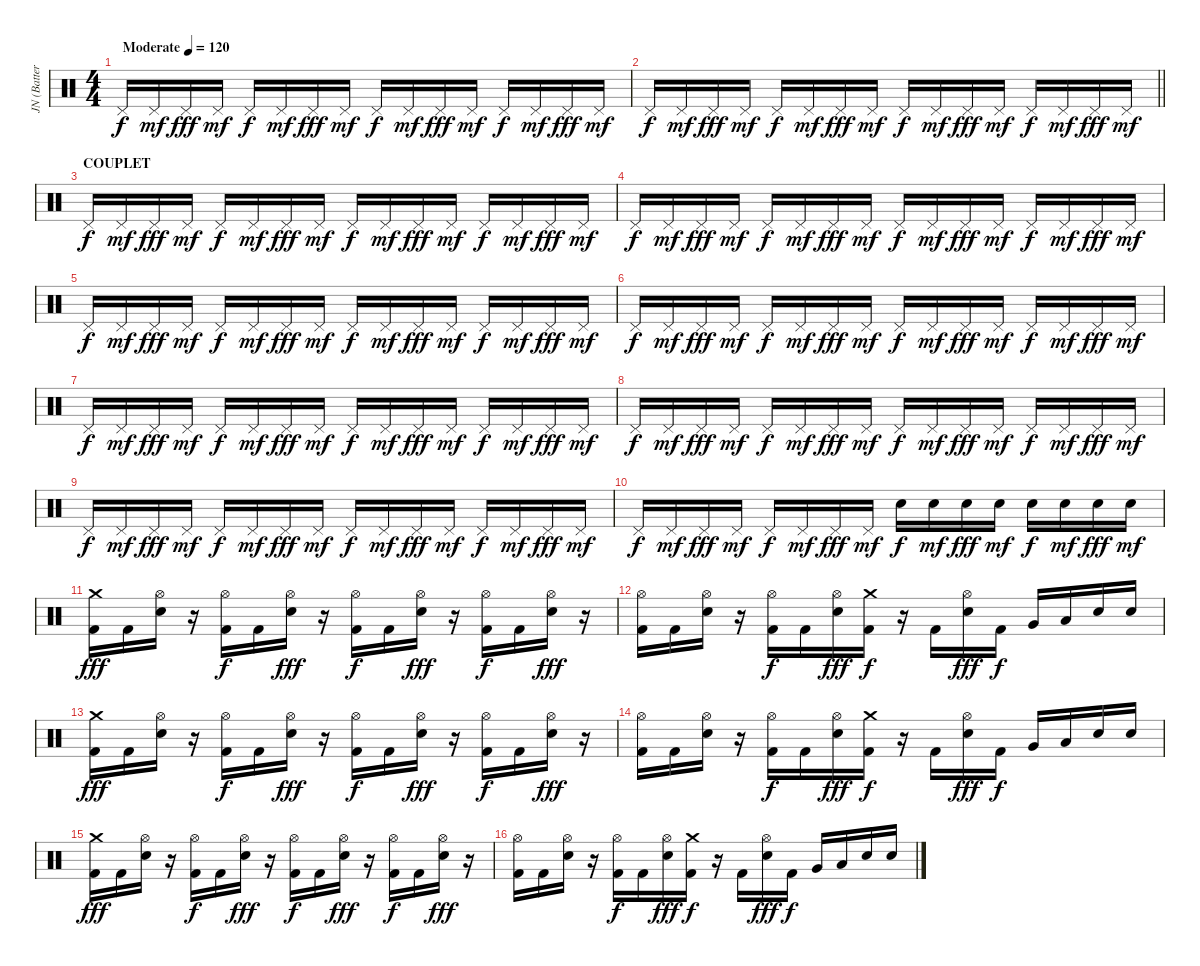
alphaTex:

\track ("JN (Batterie)" "JN (Batter") {instrument percussion}
\staff {score}
\articulation defaults
\ts (4 4)
\tempo (120 "Moderate")
\clef neutral
\ks c "Pedal Hi-Hat (hit)".16{dy f} "Pedal Hi-Hat (hit)".16{dy mf} "Pedal Hi-Hat (hit)".16{dy fff} "Pedal Hi-Hat (hit)".16{dy mf} "Pedal Hi-Hat (hit)".16{dy f} "Pedal Hi-Hat (hit)".16{dy mf} "Pedal Hi-Hat (hit)".16{dy fff} "Pedal Hi-Hat (hit)".16{dy mf} "Pedal Hi-Hat (hit)".16{dy f} "Pedal Hi-Hat (hit)".16{dy mf} "Pedal Hi-Hat (hit)".16{dy fff} "Pedal Hi-Hat (hit)".16{dy mf} "Pedal Hi-Hat (hit)".16{dy f} "Pedal Hi-Hat (hit)".16{dy mf} "Pedal Hi-Hat (hit)".16{dy fff} "Pedal Hi-Hat (hit)".16{dy mf}
|
\barLineRight lightlight "Pedal Hi-Hat (hit)".16{dy f} "Pedal Hi-Hat (hit)".16{dy mf} "Pedal Hi-Hat (hit)".16{dy fff} "Pedal Hi-Hat (hit)".16{dy mf} "Pedal Hi-Hat (hit)".16{dy f} "Pedal Hi-Hat (hit)".16{dy mf} "Pedal Hi-Hat (hit)".16{dy fff} "Pedal Hi-Hat (hit)".16{dy mf} "Pedal Hi-Hat (hit)".16{dy f} "Pedal Hi-Hat (hit)".16{dy mf} "Pedal Hi-Hat (hit)".16{dy fff} "Pedal Hi-Hat (hit)".16{dy mf} "Pedal Hi-Hat (hit)".16{dy f} "Pedal Hi-Hat (hit)".16{dy mf} "Pedal Hi-Hat (hit)".16{dy fff} "Pedal Hi-Hat (hit)".16{dy mf}
|
\section ("" "COUPLET")
"Pedal Hi-Hat (hit)".16{dy f} "Pedal Hi-Hat (hit)".16{dy mf} "Pedal Hi-Hat (hit)".16{dy fff} "Pedal Hi-Hat (hit)".16{dy mf} "Pedal Hi-Hat (hit)".16{dy f} "Pedal Hi-Hat (hit)".16{dy mf} "Pedal Hi-Hat (hit)".16{dy fff} "Pedal Hi-Hat (hit)".16{dy mf} "Pedal Hi-Hat (hit)".16{dy f} "Pedal Hi-Hat (hit)".16{dy mf} "Pedal Hi-Hat (hit)".16{dy fff} "Pedal Hi-Hat (hit)".16{dy mf} "Pedal Hi-Hat (hit)".16{dy f} "Pedal Hi-Hat (hit)".16{dy mf} "Pedal Hi-Hat (hit)".16{dy fff} "Pedal Hi-Hat (hit)".16{dy mf} |
"Pedal Hi-Hat (hit)".16{dy f} "Pedal Hi-Hat (hit)".16{dy mf} "Pedal Hi-Hat (hit)".16{dy fff} "Pedal Hi-Hat (hit)".16{dy mf} "Pedal Hi-Hat (hit)".16{dy f} "Pedal Hi-Hat (hit)".16{dy mf} "Pedal Hi-Hat (hit)".16{dy fff} "Pedal Hi-Hat (hit)".16{dy mf} "Pedal Hi-Hat (hit)".16{dy f} "Pedal Hi-Hat (hit)".16{dy mf} "Pedal Hi-Hat (hit)".16{dy fff} "Pedal Hi-Hat (hit)".16{dy mf} "Pedal Hi-Hat (hit)".16{dy f} "Pedal Hi-Hat (hit)".16{dy mf} "Pedal Hi-Hat (hit)".16{dy fff} "Pedal Hi-Hat (hit)".16{dy mf} |
"Pedal Hi-Hat (hit)".16{dy f} "Pedal Hi-Hat (hit)".16{dy mf} "Pedal Hi-Hat (hit)".16{dy fff} "Pedal Hi-Hat (hit)".16{dy mf} "Pedal Hi-Hat (hit)".16{dy f} "Pedal Hi-Hat (hit)".16{dy mf} "Pedal Hi-Hat (hit)".16{dy fff} "Pedal Hi-Hat (hit)".16{dy mf} "Pedal Hi-Hat (hit)".16{dy f} "Pedal Hi-Hat (hit)".16{dy mf} "Pedal Hi-Hat (hit)".16{dy fff} "Pedal Hi-Hat (hit)".16{dy mf} "Pedal Hi-Hat (hit)".16{dy f} "Pedal Hi-Hat (hit)".16{dy mf} "Pedal Hi-Hat (hit)".16{dy fff} "Pedal Hi-Hat (hit)".16{dy mf} |
"Pedal Hi-Hat (hit)".16{dy f} "Pedal Hi-Hat (hit)".16{dy mf} "Pedal Hi-Hat (hit)".16{dy fff} "Pedal Hi-Hat (hit)".16{dy mf} "Pedal Hi-Hat (hit)".16{dy f} "Pedal Hi-Hat (hit)".16{dy mf} "Pedal Hi-Hat (hit)".16{dy fff} "Pedal Hi-Hat (hit)".16{dy mf} "Pedal Hi-Hat (hit)".16{dy f} "Pedal Hi-Hat (hit)".16{dy mf} "Pedal Hi-Hat (hit)".16{dy fff} "Pedal Hi-Hat (hit)".16{dy mf} "Pedal Hi-Hat (hit)".16{dy f} "Pedal Hi-Hat (hit)".16{dy mf} "Pedal Hi-Hat (hit)".16{dy fff} "Pedal Hi-Hat (hit)".16{dy mf} |
"Pedal Hi-Hat (hit)".16{dy f} "Pedal Hi-Hat (hit)".16{dy mf} "Pedal Hi-Hat (hit)".16{dy fff} "Pedal Hi-Hat (hit)".16{dy mf} "Pedal Hi-Hat (hit)".16{dy f} "Pedal Hi-Hat (hit)".16{dy mf} "Pedal Hi-Hat (hit)".16{dy fff} "Pedal Hi-Hat (hit)".16{dy mf} "Pedal Hi-Hat (hit)".16{dy f} "Pedal Hi-Hat (hit)".16{dy mf} "Pedal Hi-Hat (hit)".16{dy fff} "Pedal Hi-Hat (hit)".16{dy mf} "Pedal Hi-Hat (hit)".16{dy f} "Pedal Hi-Hat (hit)".16{dy mf} "Pedal Hi-Hat (hit)".16{dy fff} "Pedal Hi-Hat (hit)".16{dy mf} |
"Pedal Hi-Hat (hit)".16{dy f} "Pedal Hi-Hat (hit)".16{dy mf} "Pedal Hi-Hat (hit)".16{dy fff} "Pedal Hi-Hat (hit)".16{dy mf} "Pedal Hi-Hat (hit)".16{dy f} "Pedal Hi-Hat (hit)".16{dy mf} "Pedal Hi-Hat (hit)".16{dy fff} "Pedal Hi-Hat (hit)".16{dy mf} "Pedal Hi-Hat (hit)".16{dy f} "Pedal Hi-Hat (hit)".16{dy mf} "Pedal Hi-Hat (hit)".16{dy fff} "Pedal Hi-Hat (hit)".16{dy mf} "Pedal Hi-Hat (hit)".16{dy f} "Pedal Hi-Hat (hit)".16{dy mf} "Pedal Hi-Hat (hit)".16{dy fff} "Pedal Hi-Hat (hit)".16{dy mf} |
"Pedal Hi-Hat (hit)".16{dy f} "Pedal Hi-Hat (hit)".16{dy mf} "Pedal Hi-Hat (hit)".16{dy fff} "Pedal Hi-Hat (hit)".16{dy mf} "Pedal Hi-Hat (hit)".16{dy f} "Pedal Hi-Hat (hit)".16{dy mf} "Pedal Hi-Hat (hit)".16{dy fff} "Pedal Hi-Hat (hit)".16{dy mf} "Pedal Hi-Hat (hit)".16{dy f} "Pedal Hi-Hat (hit)".16{dy mf} "Pedal Hi-Hat (hit)".16{dy fff} "Pedal Hi-Hat (hit)".16{dy mf} "Pedal Hi-Hat (hit)".16{dy f} "Pedal Hi-Hat (hit)".16{dy mf} "Pedal Hi-Hat (hit)".16{dy fff} "Pedal Hi-Hat (hit)".16{dy mf} |
"Pedal Hi-Hat (hit)".16{dy f} "Pedal Hi-Hat (hit)".16{dy mf} "Pedal Hi-Hat (hit)".16{dy fff} "Pedal Hi-Hat (hit)".16{dy mf} "Pedal Hi-Hat (hit)".16{dy f} "Pedal Hi-Hat (hit)".16{dy mf} "Pedal Hi-Hat (hit)".16{dy fff} "Pedal Hi-Hat (hit)".16{dy mf} "Electric Snare (hit)".16{dy f} "Electric Snare (hit)".16{dy mf} "Electric Snare (hit)".16{dy fff} "Electric Snare (hit)".16{dy mf} "Electric Snare (hit)".16{dy f} "Electric Snare (hit)".16{dy mf} "Electric Snare (hit)".16{dy fff} "Electric Snare (hit)".16{dy mf} |
("Crash medium (hit)" "Kick (hit) 2").16{dy fff} "Kick (hit) 2".16 ("Hi-Hat (open)" "Electric Snare (hit)").16 r.16 ("Hi-Hat (open)" "Kick (hit) 2").16{dy f} "Kick (hit) 2".16 ("Hi-Hat (open)" "Electric Snare (hit)").16{dy fff} r.16 ("Hi-Hat (open)" "Kick (hit) 2").16{dy f} "Kick (hit) 2".16 ("Hi-Hat (open)" "Electric Snare (hit)").16{dy fff} r.16 ("Hi-Hat (open)" "Kick (hit) 2").16{dy f} "Kick (hit) 2".16 ("Hi-Hat (open)" "Electric Snare (hit)").16{dy fff} r.16 |
("Hi-Hat (open)" "Kick (hit) 2").16 "Kick (hit) 2".16 ("Hi-Hat (open)" "Electric Snare (hit)").16 r.16 ("Hi-Hat (open)" "Kick (hit) 2").16{dy f} "Kick (hit) 2".16 ("Hi-Hat (open)" "Electric Snare (hit)").16{dy fff} ("Crash medium (hit)" "Kick (hit) 2").16{dy f} r.16 "Kick (hit) 2".16 ("Hi-Hat (open)" "Electric Snare (hit)").16{dy fff} "Kick (hit) 2".16{dy f} "Very Low Tom (hit)".16 "Low Tom (hit)".16 "Electric Snare (hit)".16 "Electric Snare (hit)".16 |
("Crash medium (hit)" "Kick (hit) 2").16{dy fff} "Kick (hit) 2".16 ("Hi-Hat (open)" "Electric Snare (hit)").16 r.16 ("Hi-Hat (open)" "Kick (hit) 2").16{dy f} "Kick (hit) 2".16 ("Hi-Hat (open)" "Electric Snare (hit)").16{dy fff} r.16 ("Hi-Hat (open)" "Kick (hit) 2").16{dy f} "Kick (hit) 2".16 ("Hi-Hat (open)" "Electric Snare (hit)").16{dy fff} r.16 ("Hi-Hat (open)" "Kick (hit) 2").16{dy f} "Kick (hit) 2".16 ("Hi-Hat (open)" "Electric Snare (hit)").16{dy fff} r.16 |
("Hi-Hat (open)" "Kick (hit) 2").16 "Kick (hit) 2".16 ("Hi-Hat (open)" "Electric Snare (hit)").16 r.16 ("Hi-Hat (open)" "Kick (hit) 2").16{dy f} "Kick (hit) 2".16 ("Hi-Hat (open)" "Electric Snare (hit)").16{dy fff} ("Crash medium (hit)" "Kick (hit) 2").16{dy f} r.16 "Kick (hit) 2".16 ("Hi-Hat (open)" "Electric Snare (hit)").16{dy fff} "Kick (hit) 2".16{dy f} "Very Low Tom (hit)".16 "Low Tom (hit)".16 "Electric Snare (hit)".16 "Electric Snare (hit)".16 |
("Crash medium (hit)" "Kick (hit) 2").16{dy fff} "Kick (hit) 2".16 ("Hi-Hat (open)" "Electric Snare (hit)").16 r.16 ("Hi-Hat (open)" "Kick (hit) 2").16{dy f} "Kick (hit) 2".16 ("Hi-Hat (open)" "Electric Snare (hit)").16{dy fff} r.16 ("Hi-Hat (open)" "Kick (hit) 2").16{dy f} "Kick (hit) 2".16 ("Hi-Hat (open)" "Electric Snare (hit)").16{dy fff} r.16 ("Hi-Hat (open)" "Kick (hit) 2").16{dy f} "Kick (hit) 2".16 ("Hi-Hat (open)" "Electric Snare (hit)").16{dy fff} r.16 |
("Hi-Hat (open)" "Kick (hit) 2").16 "Kick (hit) 2".16 ("Hi-Hat (open)" "Electric Snare (hit)").16 r.16 ("Hi-Hat (open)" "Kick (hit) 2").16{dy f} "Kick (hit) 2".16 ("Hi-Hat (open)" "Electric Snare (hit)").16{dy fff} ("Crash medium (hit)" "Kick (hit) 2").16{dy f} r.16 "Kick (hit) 2".16 ("Hi-Hat (open)" "Electric Snare (hit)").16{dy fff} "Kick (hit) 2".16{dy f} "Very Low Tom (hit)".16 "Low Tom (hit)".16 "Electric Snare (hit)".16 "Electric Snare (hit)".16
